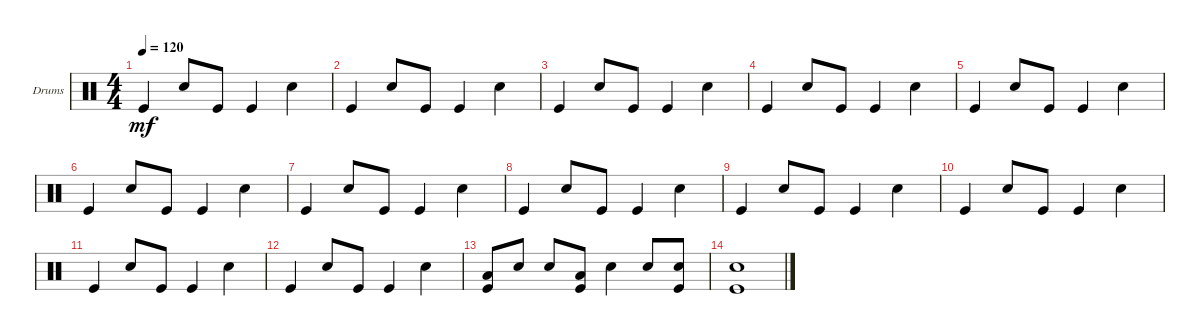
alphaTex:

\defaultSystemsLayout 4
\bracketExtendMode groupsimilarinstruments
\firstSystemTrackNameOrientation horizontal
\otherSystemsTrackNameOrientation horizontal
\track ("Drumkit" "Drums") {multiBarRest instrument percussion}
\staff {score}
\articulation defaults
\ts (4 4)
\tempo 120
\clef neutral
\ks c "Kick (hit)".4{dy mf} "Snare (hit) 2".8 "Kick (hit)".8 "Kick (hit)".4 "Snare (hit) 2".4
|
"Kick (hit)".4 "Snare (hit) 2".8 "Kick (hit)".8 "Kick (hit)".4 "Snare (hit) 2".4 |
"Kick (hit)".4 "Snare (hit) 2".8 "Kick (hit)".8 "Kick (hit)".4 "Snare (hit) 2".4 |
"Kick (hit)".4 "Snare (hit) 2".8 "Kick (hit)".8 "Kick (hit)".4 "Snare (hit) 2".4 |
"Kick (hit)".4 "Snare (hit) 2".8 "Kick (hit)".8 "Kick (hit)".4 "Snare (hit) 2".4 |
"Kick (hit)".4 "Snare (hit) 2".8 "Kick (hit)".8 "Kick (hit)".4 "Snare (hit) 2".4 |
"Kick (hit)".4 "Snare (hit) 2".8 "Kick (hit)".8 "Kick (hit)".4 "Snare (hit) 2".4 |
"Kick (hit)".4 "Snare (hit) 2".8 "Kick (hit)".8 "Kick (hit)".4 "Snare (hit) 2".4 |
"Kick (hit)".4 "Snare (hit) 2".8 "Kick (hit)".8 "Kick (hit)".4 "Snare (hit) 2".4 |
"Kick (hit)".4 "Snare (hit) 2".8 "Kick (hit)".8 "Kick (hit)".4 "Snare (hit) 2".4 |
"Kick (hit)".4 "Snare (hit) 2".8 "Kick (hit)".8 "Kick (hit)".4 "Snare (hit) 2".4 |
"Kick (hit)".4 "Snare (hit) 2".8 "Kick (hit)".8 "Kick (hit)".4 "Snare (hit) 2".4 |
("Kick (hit)" "Low Tom (hit)").8 "Snare (hit) 2".8 "Snare (hit) 2".8 ("Kick (hit)" "Low Tom (hit)").8 "Snare (hit) 2".4 "Snare (hit) 2".8 ("Snare (hit) 2" "Kick (hit)").8 |
("Kick (hit)" "Snare (hit) 2").1
